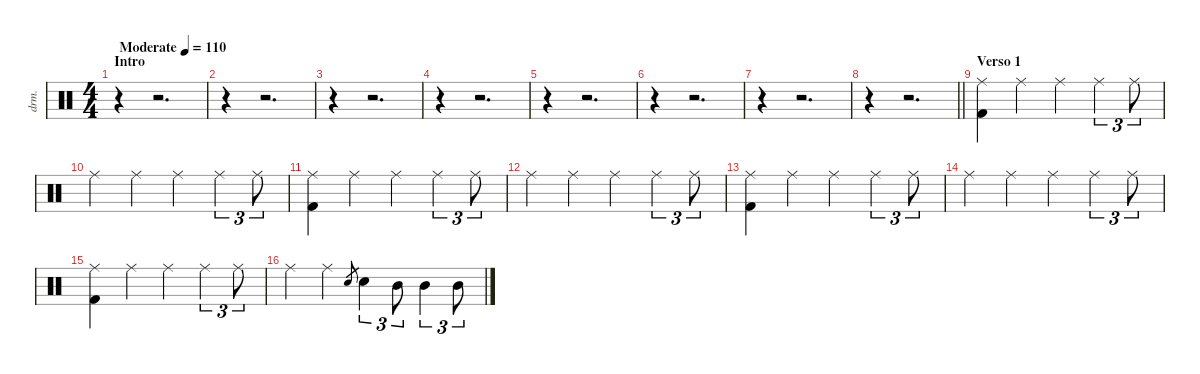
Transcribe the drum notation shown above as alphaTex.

\defaultSystemsLayout 4
\hideDynamics
\bracketExtendMode nobrackets
\otherSystemsTrackNameOrientation horizontal
\track ("Drums" "drm.") {instrument percussion}
\staff {score}
\articulation defaults
\ts (4 4)
\beaming (8 2 2 2 2)
\section ("" "Intro")
\tempo (110 "Moderate")
\clef neutral
\ks c
r.4{dy f} r.2{d} |
r.4 r.2{d} |
r.4 r.2{d} |
r.4 r.2{d} |
r.4 r.2{d} |
r.4 r.2{d} |
r.4 r.2{d} |
\barLineRight lightlight
r.4 r.2{d} |
\section ("" "Verso 1")
("Ride (middle)" "Kick (hit) 2").4 "Ride (middle)".4{dy mp} "Ride (middle)".4 "Ride (middle)".4{tu (3 2)} "Ride (middle)".8{tu (3 2)} |
"Ride (middle)".4 "Ride (middle)".4 "Ride (middle)".4 "Ride (middle)".4{tu (3 2)} "Ride (middle)".8{tu (3 2)} |
("Ride (middle)" "Kick (hit) 2").4{dy f} "Ride (middle)".4{dy mp} "Ride (middle)".4 "Ride (middle)".4{tu (3 2)} "Ride (middle)".8{tu (3 2)} |
"Ride (middle)".4 "Ride (middle)".4 "Ride (middle)".4 "Ride (middle)".4{tu (3 2)} "Ride (middle)".8{tu (3 2)} |
("Ride (middle)" "Kick (hit) 2").4{dy f} "Ride (middle)".4{dy mp} "Ride (middle)".4 "Ride (middle)".4{tu (3 2)} "Ride (middle)".8{tu (3 2)} |
"Ride (middle)".4 "Ride (middle)".4 "Ride (middle)".4 "Ride (middle)".4{tu (3 2)} "Ride (middle)".8{tu (3 2)} |
("Ride (middle)" "Kick (hit) 2").4{dy f} "Ride (middle)".4{dy mp} "Ride (middle)".4 "Ride (middle)".4{tu (3 2)} "Ride (middle)".8{tu (3 2)} |
"Ride (middle)".4 "Ride (middle)".4 "Snare (hit) 2".8{gr dy p} "Snare (hit) 2".4{tu (3 2) dy f} "Mid Tom (hit)".8{tu (3 2)} "Mid Tom (hit)".4{tu (3 2)} "Mid Tom (hit)".8{tu (3 2)}
